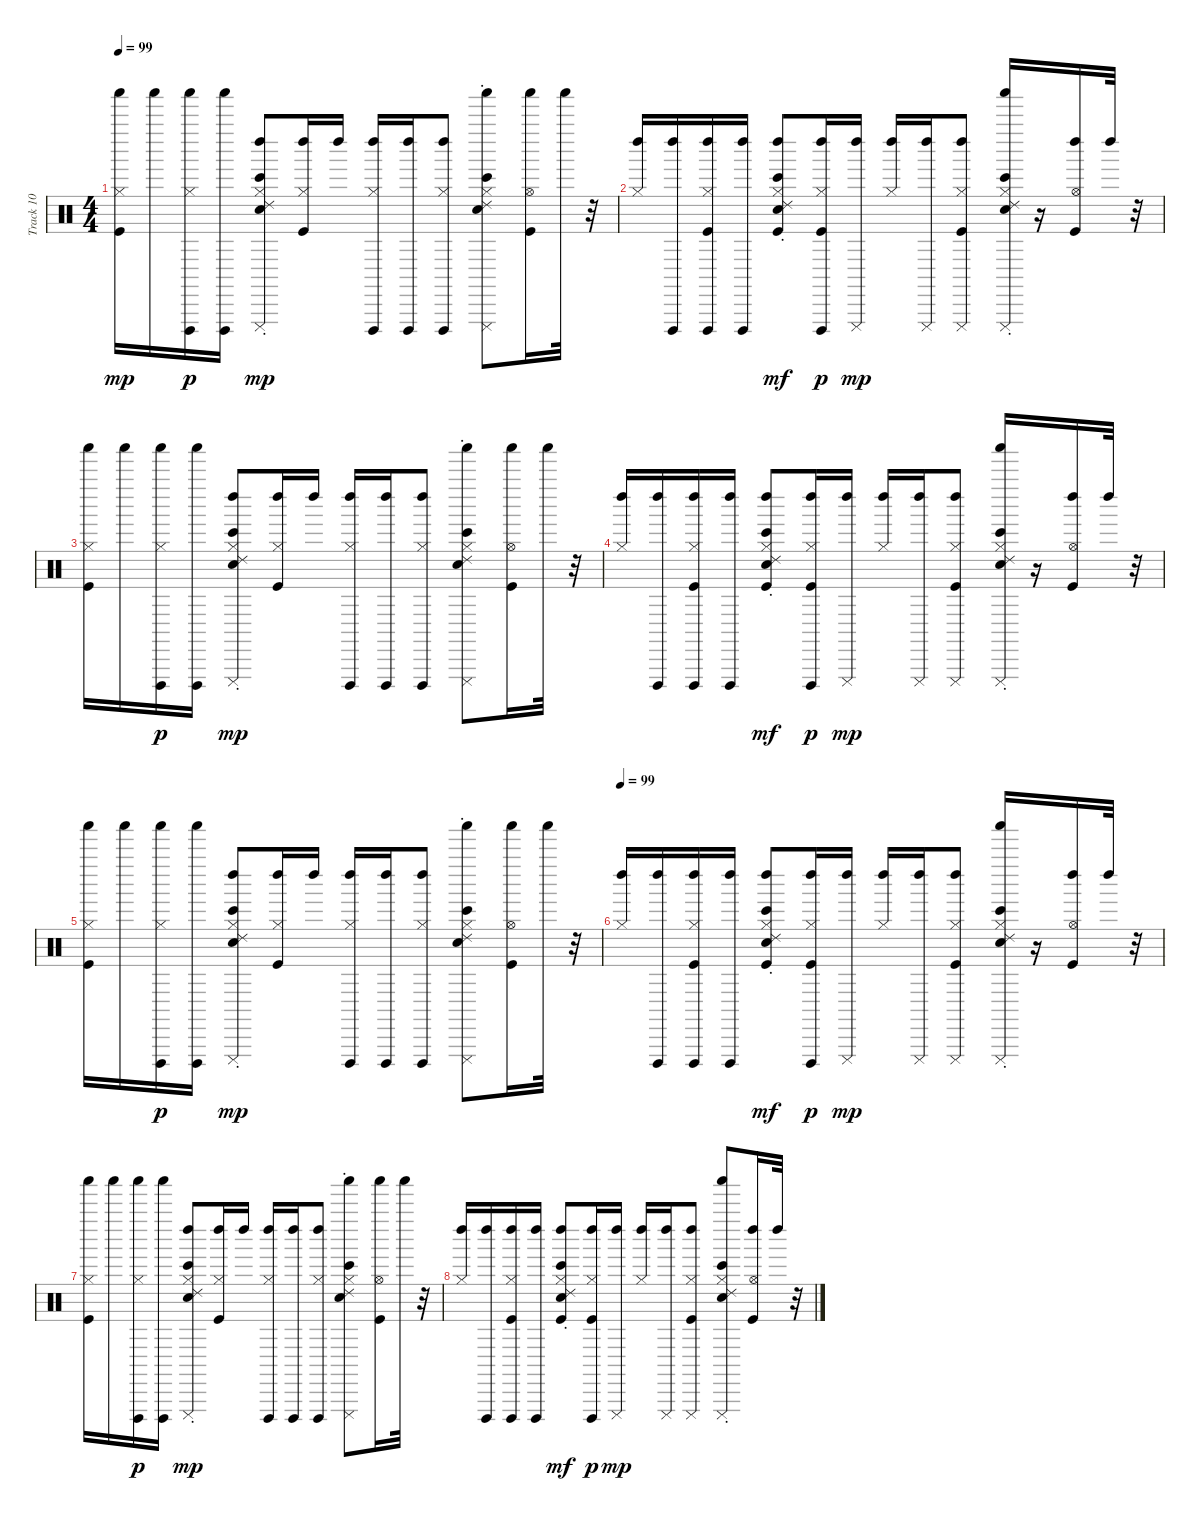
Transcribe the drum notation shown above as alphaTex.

\track ("Track 10" "Track 10") {instrument percussion}
\staff {score}
\articulation defaults
\ts (4 4)
\tempo 99
\clef neutral
\ks c
("Kick (hit)" "Hi-Hat (closed)" "Shaker (hit)").16{dy mp} "Shaker (hit)".16 ("Hi-Hat (closed)" "Cuica (open)" "Shaker (hit)").16{dy p} ("Cuica (open)" "Shaker (hit)").16 ("Bongo High (hit)" "Ride (choke) 2" "Electric Snare (hit)" "Hi-Hat (closed)" "Left Maraca (hit)" "Cuica (mute)").8{dy mp} ("Kick (hit)" "Hi-Hat (closed)" "Left Maraca (hit)").16 "Left Maraca (hit)".16 ("Hi-Hat (closed)" "Left Maraca (hit)" "Cuica (open)").16 ("Cuica (open)" "Left Maraca (hit)").16 ("Hi-Hat (closed)" "Left Maraca (hit)" "Cuica (open)").8 ("Bongo High (hit)" "Ride (choke) 2" "Electric Snare (hit)" "Hi-Hat (closed)" "Cuica (mute)" "Shaker (hit)").8 ("Kick (hit)" "Hi-Hat (open)" "Shaker (hit)").16 "Shaker (hit)".32 r.32 |
("Hi-Hat (closed)" "Left Maraca (hit)").16 ("Cuica (open)" "Left Maraca (hit)").16 ("Kick (hit)" "Hi-Hat (closed)" "Left Maraca (hit)" "Cuica (open)").16 ("Cuica (open)" "Left Maraca (hit)").16 ("Bongo High (hit)" "Ride (choke) 2" "Kick (hit)" "Electric Snare (hit)" "Hi-Hat (closed)" "Left Maraca (hit)").8{dy mf} ("Kick (hit)" "Hi-Hat (closed)" "Left Maraca (hit)" "Cuica (open)").16{dy p} ("Cuica (mute)" "Left Maraca (hit)").16{dy mp} ("Hi-Hat (closed)" "Left Maraca (hit)").16 ("Cuica (mute)" "Left Maraca (hit)").16 ("Kick (hit)" "Hi-Hat (closed)" "Left Maraca (hit)" "Cuica (mute)").8 ("Bongo High (hit)" "Ride (choke) 2" "Electric Snare (hit)" "Hi-Hat (closed)" "Cuica (mute)" "Shaker (hit)").16 r.16 ("Kick (hit)" "Hi-Hat (open)" "Left Maraca (hit)").16 "Left Maraca (hit)".32 r.32 |
("Kick (hit)" "Hi-Hat (closed)" "Shaker (hit)").16 "Shaker (hit)".16 ("Hi-Hat (closed)" "Cuica (open)" "Shaker (hit)").16{dy p} ("Cuica (open)" "Shaker (hit)").16 ("Bongo High (hit)" "Ride (choke) 2" "Electric Snare (hit)" "Hi-Hat (closed)" "Left Maraca (hit)" "Cuica (mute)").8{dy mp} ("Kick (hit)" "Hi-Hat (closed)" "Left Maraca (hit)").16 "Left Maraca (hit)".16 ("Hi-Hat (closed)" "Left Maraca (hit)" "Cuica (open)").16 ("Cuica (open)" "Left Maraca (hit)").16 ("Hi-Hat (closed)" "Left Maraca (hit)" "Cuica (open)").8 ("Bongo High (hit)" "Ride (choke) 2" "Electric Snare (hit)" "Hi-Hat (closed)" "Cuica (mute)" "Shaker (hit)").8 ("Kick (hit)" "Hi-Hat (open)" "Shaker (hit)").16 "Shaker (hit)".32 r.32 |
("Hi-Hat (closed)" "Left Maraca (hit)").16 ("Cuica (open)" "Left Maraca (hit)").16 ("Kick (hit)" "Hi-Hat (closed)" "Left Maraca (hit)" "Cuica (open)").16 ("Cuica (open)" "Left Maraca (hit)").16 ("Bongo High (hit)" "Ride (choke) 2" "Kick (hit)" "Electric Snare (hit)" "Hi-Hat (closed)" "Left Maraca (hit)").8{dy mf} ("Kick (hit)" "Hi-Hat (closed)" "Left Maraca (hit)" "Cuica (open)").16{dy p} ("Cuica (mute)" "Left Maraca (hit)").16{dy mp} ("Hi-Hat (closed)" "Left Maraca (hit)").16 ("Cuica (mute)" "Left Maraca (hit)").16 ("Kick (hit)" "Hi-Hat (closed)" "Left Maraca (hit)" "Cuica (mute)").8 ("Bongo High (hit)" "Ride (choke) 2" "Electric Snare (hit)" "Hi-Hat (closed)" "Cuica (mute)" "Shaker (hit)").16 r.16 ("Kick (hit)" "Hi-Hat (open)" "Left Maraca (hit)").16 "Left Maraca (hit)".32 r.32 |
("Kick (hit)" "Hi-Hat (closed)" "Shaker (hit)").16 "Shaker (hit)".16 ("Hi-Hat (closed)" "Cuica (open)" "Shaker (hit)").16{dy p} ("Cuica (open)" "Shaker (hit)").16 ("Bongo High (hit)" "Ride (choke) 2" "Electric Snare (hit)" "Hi-Hat (closed)" "Left Maraca (hit)" "Cuica (mute)").8{dy mp} ("Kick (hit)" "Hi-Hat (closed)" "Left Maraca (hit)").16 "Left Maraca (hit)".16 ("Hi-Hat (closed)" "Left Maraca (hit)" "Cuica (open)").16 ("Cuica (open)" "Left Maraca (hit)").16 ("Hi-Hat (closed)" "Left Maraca (hit)" "Cuica (open)").8 ("Bongo High (hit)" "Ride (choke) 2" "Electric Snare (hit)" "Hi-Hat (closed)" "Cuica (mute)" "Shaker (hit)").8 ("Kick (hit)" "Hi-Hat (open)" "Shaker (hit)").16 "Shaker (hit)".32 r.32 |
\tempo 99
("Hi-Hat (closed)" "Left Maraca (hit)").16 ("Cuica (open)" "Left Maraca (hit)").16 ("Kick (hit)" "Hi-Hat (closed)" "Left Maraca (hit)" "Cuica (open)").16 ("Cuica (open)" "Left Maraca (hit)").16 ("Bongo High (hit)" "Ride (choke) 2" "Kick (hit)" "Electric Snare (hit)" "Hi-Hat (closed)" "Left Maraca (hit)").8{dy mf} ("Kick (hit)" "Hi-Hat (closed)" "Left Maraca (hit)" "Cuica (open)").16{dy p} ("Cuica (mute)" "Left Maraca (hit)").16{dy mp} ("Hi-Hat (closed)" "Left Maraca (hit)").16 ("Cuica (mute)" "Left Maraca (hit)").16 ("Kick (hit)" "Hi-Hat (closed)" "Left Maraca (hit)" "Cuica (mute)").8 ("Bongo High (hit)" "Ride (choke) 2" "Electric Snare (hit)" "Hi-Hat (closed)" "Cuica (mute)" "Shaker (hit)").16 r.16 ("Kick (hit)" "Hi-Hat (open)" "Left Maraca (hit)").16 "Left Maraca (hit)".32 r.32 |
("Kick (hit)" "Hi-Hat (closed)" "Shaker (hit)").16 "Shaker (hit)".16 ("Hi-Hat (closed)" "Cuica (open)" "Shaker (hit)").16{dy p} ("Cuica (open)" "Shaker (hit)").16 ("Bongo High (hit)" "Ride (choke) 2" "Electric Snare (hit)" "Hi-Hat (closed)" "Left Maraca (hit)" "Cuica (mute)").8{dy mp} ("Kick (hit)" "Hi-Hat (closed)" "Left Maraca (hit)").16 "Left Maraca (hit)".16 ("Hi-Hat (closed)" "Left Maraca (hit)" "Cuica (open)").16 ("Cuica (open)" "Left Maraca (hit)").16 ("Hi-Hat (closed)" "Left Maraca (hit)" "Cuica (open)").8 ("Bongo High (hit)" "Ride (choke) 2" "Electric Snare (hit)" "Hi-Hat (closed)" "Cuica (mute)" "Shaker (hit)").8 ("Kick (hit)" "Hi-Hat (open)" "Shaker (hit)").16 "Shaker (hit)".32 r.32 |
("Hi-Hat (closed)" "Left Maraca (hit)").16 ("Cuica (open)" "Left Maraca (hit)").16 ("Kick (hit)" "Hi-Hat (closed)" "Left Maraca (hit)" "Cuica (open)").16 ("Cuica (open)" "Left Maraca (hit)").16 ("Bongo High (hit)" "Ride (choke) 2" "Kick (hit)" "Electric Snare (hit)" "Hi-Hat (closed)" "Left Maraca (hit)").8{dy mf} ("Kick (hit)" "Hi-Hat (closed)" "Left Maraca (hit)" "Cuica (open)").16{dy p} ("Cuica (mute)" "Left Maraca (hit)").16{dy mp} ("Hi-Hat (closed)" "Left Maraca (hit)").16 ("Cuica (mute)" "Left Maraca (hit)").16 ("Kick (hit)" "Hi-Hat (closed)" "Left Maraca (hit)" "Cuica (mute)").8 ("Bongo High (hit)" "Ride (choke) 2" "Electric Snare (hit)" "Hi-Hat (closed)" "Cuica (mute)" "Shaker (hit)").8 ("Kick (hit)" "Hi-Hat (open)" "Left Maraca (hit)").16 "Left Maraca (hit)".32 r.32
